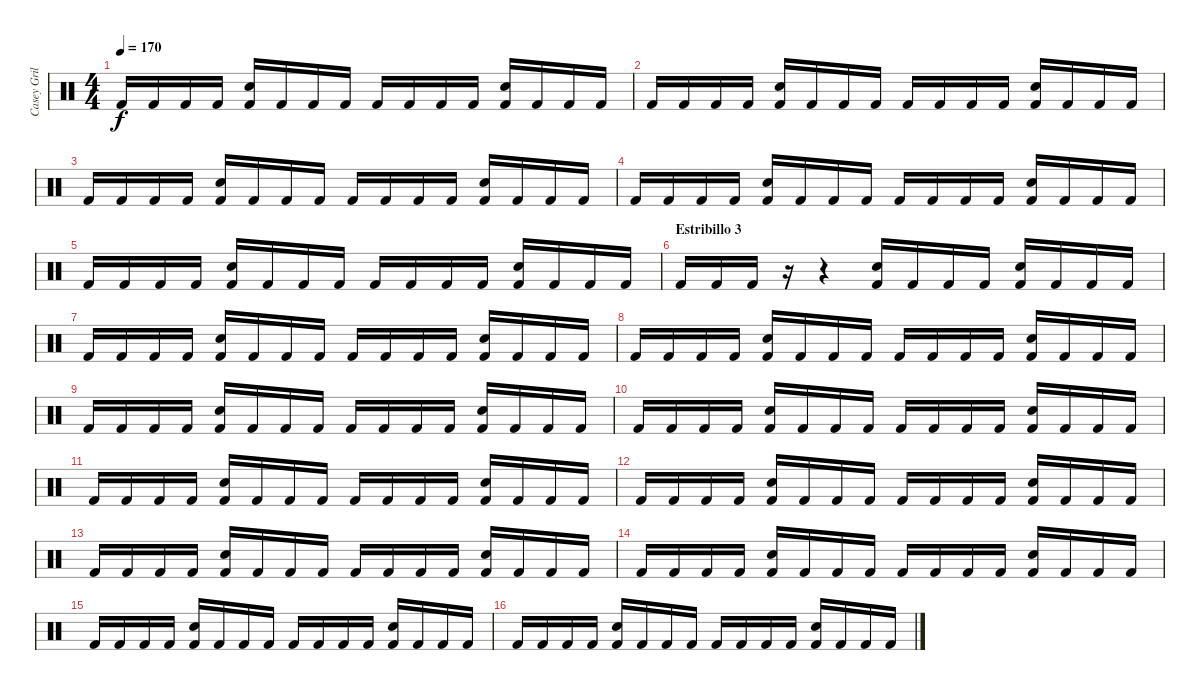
\track ("Casey Grillo" "Casey Gril") {instrument percussion}
\staff {score}
\articulation defaults
\ts (4 4)
\tempo 170
\clef neutral
\ks c "Kick (hit) 2".16{dy f} "Kick (hit) 2".16 "Kick (hit) 2".16 "Kick (hit) 2".16
("Snare (hit) 2" "Kick (hit) 2").16 "Kick (hit) 2".16 "Kick (hit) 2".16 "Kick (hit) 2".16 "Kick (hit) 2".16 "Kick (hit) 2".16 "Kick (hit) 2".16 "Kick (hit) 2".16 ("Snare (hit) 2" "Kick (hit) 2").16 "Kick (hit) 2".16 "Kick (hit) 2".16 "Kick (hit) 2".16 |
"Kick (hit) 2".16 "Kick (hit) 2".16 "Kick (hit) 2".16 "Kick (hit) 2".16 ("Snare (hit) 2" "Kick (hit) 2").16 "Kick (hit) 2".16 "Kick (hit) 2".16 "Kick (hit) 2".16 "Kick (hit) 2".16 "Kick (hit) 2".16 "Kick (hit) 2".16 "Kick (hit) 2".16 ("Snare (hit) 2" "Kick (hit) 2").16 "Kick (hit) 2".16 "Kick (hit) 2".16 "Kick (hit) 2".16 |
"Kick (hit) 2".16 "Kick (hit) 2".16 "Kick (hit) 2".16 "Kick (hit) 2".16 ("Snare (hit) 2" "Kick (hit) 2").16 "Kick (hit) 2".16 "Kick (hit) 2".16 "Kick (hit) 2".16 "Kick (hit) 2".16 "Kick (hit) 2".16 "Kick (hit) 2".16 "Kick (hit) 2".16 ("Snare (hit) 2" "Kick (hit) 2").16 "Kick (hit) 2".16 "Kick (hit) 2".16 "Kick (hit) 2".16 |
"Kick (hit) 2".16 "Kick (hit) 2".16 "Kick (hit) 2".16 "Kick (hit) 2".16 ("Snare (hit) 2" "Kick (hit) 2").16 "Kick (hit) 2".16 "Kick (hit) 2".16 "Kick (hit) 2".16 "Kick (hit) 2".16 "Kick (hit) 2".16 "Kick (hit) 2".16 "Kick (hit) 2".16 ("Snare (hit) 2" "Kick (hit) 2").16 "Kick (hit) 2".16 "Kick (hit) 2".16 "Kick (hit) 2".16 |
"Kick (hit) 2".16 "Kick (hit) 2".16 "Kick (hit) 2".16 "Kick (hit) 2".16 ("Snare (hit) 2" "Kick (hit) 2").16 "Kick (hit) 2".16 "Kick (hit) 2".16 "Kick (hit) 2".16 "Kick (hit) 2".16 "Kick (hit) 2".16 "Kick (hit) 2".16 "Kick (hit) 2".16 ("Snare (hit) 2" "Kick (hit) 2").16 "Kick (hit) 2".16 "Kick (hit) 2".16 "Kick (hit) 2".16 |
\section ("" "Estribillo 3")
"Kick (hit) 2".16 "Kick (hit) 2".16 "Kick (hit) 2".16 r.16 r.4 ("Snare (hit) 2" "Kick (hit) 2").16 "Kick (hit) 2".16 "Kick (hit) 2".16 "Kick (hit) 2".16 ("Snare (hit) 2" "Kick (hit) 2").16 "Kick (hit) 2".16 "Kick (hit) 2".16 "Kick (hit) 2".16 |
"Kick (hit) 2".16 "Kick (hit) 2".16 "Kick (hit) 2".16 "Kick (hit) 2".16 ("Snare (hit) 2" "Kick (hit) 2").16 "Kick (hit) 2".16 "Kick (hit) 2".16 "Kick (hit) 2".16 "Kick (hit) 2".16 "Kick (hit) 2".16 "Kick (hit) 2".16 "Kick (hit) 2".16 ("Snare (hit) 2" "Kick (hit) 2").16 "Kick (hit) 2".16 "Kick (hit) 2".16 "Kick (hit) 2".16 |
"Kick (hit) 2".16 "Kick (hit) 2".16 "Kick (hit) 2".16 "Kick (hit) 2".16 ("Snare (hit) 2" "Kick (hit) 2").16 "Kick (hit) 2".16 "Kick (hit) 2".16 "Kick (hit) 2".16 "Kick (hit) 2".16 "Kick (hit) 2".16 "Kick (hit) 2".16 "Kick (hit) 2".16 ("Snare (hit) 2" "Kick (hit) 2").16 "Kick (hit) 2".16 "Kick (hit) 2".16 "Kick (hit) 2".16 |
"Kick (hit) 2".16 "Kick (hit) 2".16 "Kick (hit) 2".16 "Kick (hit) 2".16 ("Snare (hit) 2" "Kick (hit) 2").16 "Kick (hit) 2".16 "Kick (hit) 2".16 "Kick (hit) 2".16 "Kick (hit) 2".16 "Kick (hit) 2".16 "Kick (hit) 2".16 "Kick (hit) 2".16 ("Snare (hit) 2" "Kick (hit) 2").16 "Kick (hit) 2".16 "Kick (hit) 2".16 "Kick (hit) 2".16 |
"Kick (hit) 2".16 "Kick (hit) 2".16 "Kick (hit) 2".16 "Kick (hit) 2".16 ("Snare (hit) 2" "Kick (hit) 2").16 "Kick (hit) 2".16 "Kick (hit) 2".16 "Kick (hit) 2".16 "Kick (hit) 2".16 "Kick (hit) 2".16 "Kick (hit) 2".16 "Kick (hit) 2".16 ("Snare (hit) 2" "Kick (hit) 2").16 "Kick (hit) 2".16 "Kick (hit) 2".16 "Kick (hit) 2".16 |
"Kick (hit) 2".16 "Kick (hit) 2".16 "Kick (hit) 2".16 "Kick (hit) 2".16 ("Snare (hit) 2" "Kick (hit) 2").16 "Kick (hit) 2".16 "Kick (hit) 2".16 "Kick (hit) 2".16 "Kick (hit) 2".16 "Kick (hit) 2".16 "Kick (hit) 2".16 "Kick (hit) 2".16 ("Snare (hit) 2" "Kick (hit) 2").16 "Kick (hit) 2".16 "Kick (hit) 2".16 "Kick (hit) 2".16 |
"Kick (hit) 2".16 "Kick (hit) 2".16 "Kick (hit) 2".16 "Kick (hit) 2".16 ("Snare (hit) 2" "Kick (hit) 2").16 "Kick (hit) 2".16 "Kick (hit) 2".16 "Kick (hit) 2".16 "Kick (hit) 2".16 "Kick (hit) 2".16 "Kick (hit) 2".16 "Kick (hit) 2".16 ("Snare (hit) 2" "Kick (hit) 2").16 "Kick (hit) 2".16 "Kick (hit) 2".16 "Kick (hit) 2".16 |
"Kick (hit) 2".16 "Kick (hit) 2".16 "Kick (hit) 2".16 "Kick (hit) 2".16 ("Snare (hit) 2" "Kick (hit) 2").16 "Kick (hit) 2".16 "Kick (hit) 2".16 "Kick (hit) 2".16 "Kick (hit) 2".16 "Kick (hit) 2".16 "Kick (hit) 2".16 "Kick (hit) 2".16 ("Snare (hit) 2" "Kick (hit) 2").16 "Kick (hit) 2".16 "Kick (hit) 2".16 "Kick (hit) 2".16 |
"Kick (hit) 2".16 "Kick (hit) 2".16 "Kick (hit) 2".16 "Kick (hit) 2".16 ("Snare (hit) 2" "Kick (hit) 2").16 "Kick (hit) 2".16 "Kick (hit) 2".16 "Kick (hit) 2".16 "Kick (hit) 2".16 "Kick (hit) 2".16 "Kick (hit) 2".16 "Kick (hit) 2".16 ("Snare (hit) 2" "Kick (hit) 2").16 "Kick (hit) 2".16 "Kick (hit) 2".16 "Kick (hit) 2".16 |
"Kick (hit) 2".16 "Kick (hit) 2".16 "Kick (hit) 2".16 "Kick (hit) 2".16 ("Snare (hit) 2" "Kick (hit) 2").16 "Kick (hit) 2".16 "Kick (hit) 2".16 "Kick (hit) 2".16 "Kick (hit) 2".16 "Kick (hit) 2".16 "Kick (hit) 2".16 "Kick (hit) 2".16 ("Snare (hit) 2" "Kick (hit) 2").16 "Kick (hit) 2".16 "Kick (hit) 2".16 "Kick (hit) 2".16 |
"Kick (hit) 2".16 "Kick (hit) 2".16 "Kick (hit) 2".16 "Kick (hit) 2".16 ("Snare (hit) 2" "Kick (hit) 2").16 "Kick (hit) 2".16 "Kick (hit) 2".16 "Kick (hit) 2".16 "Kick (hit) 2".16 "Kick (hit) 2".16 "Kick (hit) 2".16 "Kick (hit) 2".16 ("Snare (hit) 2" "Kick (hit) 2").16 "Kick (hit) 2".16 "Kick (hit) 2".16 "Kick (hit) 2".16
